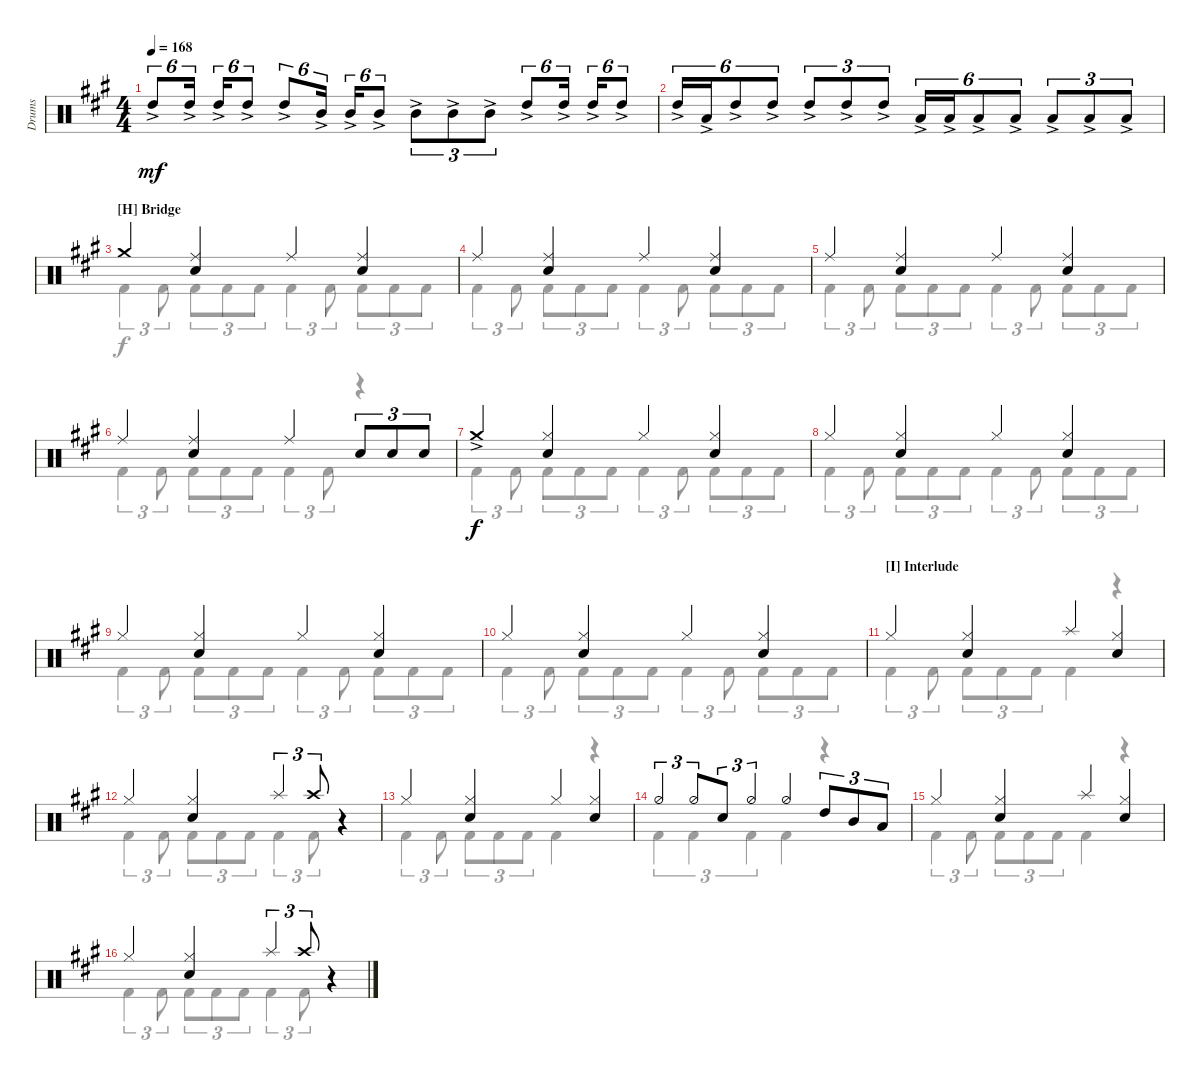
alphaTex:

\defaultSystemsLayout 4
\bracketExtendMode groupsimilarinstruments
\otherSystemsTrackNameOrientation horizontal
\track ("Drums" "Drums") {instrument percussion}
\staff {score}
\articulation defaults
\voice
\ts (4 4)
\tempo 168
\clef neutral
\ks a "High Tom (hit)"{ac acc forcenatural}.8{tu (6 4) dy mf beam Up} "High Tom (hit)"{ac acc forcenatural}.16{tu (6 4) beam Up} "High Tom (hit)"{ac acc forcenatural}.16{tu (6 4) beam Up} "High Tom (hit)"{ac acc forcenatural}.8{tu (6 4) beam Up} "High Tom (hit)"{ac acc forcenatural}.8{tu (6 4) beam Up} "Mid Tom (hit)"{ac acc forcenatural}.16{tu (6 4) beam Up} "Mid Tom (hit)"{ac acc forcenatural}.16{tu (6 4) beam Up} "Mid Tom (hit)"{ac acc forcenatural}.8{tu (6 4) beam Up} "Mid Tom (hit)"{ac acc forcenatural}.8{tu (3 2) beam Down} "Mid Tom (hit)"{ac acc forcenatural}.8{tu (3 2) beam Down} "Mid Tom (hit)"{ac acc forcenatural}.8{tu (3 2) beam Down} "High Tom (hit)"{ac acc forcenatural}.8{tu (6 4) beam Up} "High Tom (hit)"{ac acc forcenatural}.16{tu (6 4) beam Up} "High Tom (hit)"{ac acc forcenatural}.16{tu (6 4) beam Up} "High Tom (hit)"{ac acc forcenatural}.8{tu (6 4) beam Up}
|
"High Tom (hit)"{ac acc forcenatural}.16{tu (6 4) beam Up} "Low Tom (hit)"{ac acc forcenatural}.16{tu (6 4) beam Up} "High Tom (hit)"{ac acc forcenatural}.8{tu (6 4) beam Up} "High Tom (hit)"{ac acc forcenatural}.8{tu (6 4) beam Up} "High Tom (hit)"{ac acc forcenatural}.8{tu (3 2) beam Up} "High Tom (hit)"{ac acc forcenatural}.8{tu (3 2) beam Up} "High Tom (hit)"{ac acc forcenatural}.8{tu (3 2) beam Up} "Low Tom (hit)"{ac acc forcenatural}.16{tu (6 4) beam Up} "Low Tom (hit)"{ac acc forcenatural}.16{tu (6 4) beam Up} "Low Tom (hit)"{ac acc forcenatural}.8{tu (6 4) beam Up} "Low Tom (hit)"{ac acc forcenatural}.8{tu (6 4) beam Up} "Low Tom (hit)"{ac acc forcenatural}.8{tu (3 2) beam Up} "Low Tom (hit)"{ac acc forcenatural}.8{tu (3 2) beam Up} "Low Tom (hit)"{ac acc forcenatural}.8{tu (3 2) beam Up} |
\section ("H" "Bridge")
"Crash medium (hit)"{acc forcenatural}.4{beam Up} ("Ride (middle)"{acc forcenatural} "Snare (hit) 2"{acc forcenatural}).4{beam Up} "Ride (middle)"{acc forcenatural}.4{beam Up} ("Ride (middle)"{acc forcenatural} "Snare (hit) 2"{acc forcenatural}).4{beam Up} |
"Ride (middle)"{acc forcenatural}.4{beam Up} ("Ride (middle)"{acc forcenatural} "Snare (hit) 2"{acc forcenatural}).4{beam Up} "Ride (middle)"{acc forcenatural}.4{beam Up} ("Ride (middle)"{acc forcenatural} "Snare (hit) 2"{acc forcenatural}).4{beam Up} |
"Ride (middle)"{acc forcenatural}.4{beam Up} ("Ride (middle)"{acc forcenatural} "Snare (hit) 2"{acc forcenatural}).4{beam Up} "Ride (middle)"{acc forcenatural}.4{beam Up} ("Ride (middle)"{acc forcenatural} "Snare (hit) 2"{acc forcenatural}).4{beam Up} |
"Ride (middle)"{acc forcenatural}.4{beam Up} ("Ride (middle)"{acc forcenatural} "Snare (hit) 2"{acc forcenatural}).4{beam Up} "Ride (middle)"{acc forcenatural}.4{beam Up} "Snare (hit) 2"{acc forcenatural}.8{tu (3 2) beam Up} "Snare (hit) 2"{acc forcenatural}.8{tu (3 2) beam Up} "Snare (hit) 2"{acc forcenatural}.8{tu (3 2) beam Up} |
"Crash medium (hit)"{ac acc forcenatural}.4{dy f beam Up} ("Hi-Hat (closed)"{acc forcenatural} "Snare (hit) 2"{acc forcenatural}).4{beam Up} "Hi-Hat (closed)"{acc forcenatural}.4{beam Up} ("Hi-Hat (closed)"{acc forcenatural} "Snare (hit) 2"{acc forcenatural}).4{beam Up} |
"Hi-Hat (closed)"{acc forcenatural}.4{beam Up} ("Hi-Hat (closed)"{acc forcenatural} "Snare (hit) 2"{acc forcenatural}).4{beam Up} "Hi-Hat (closed)"{acc forcenatural}.4{beam Up} ("Hi-Hat (closed)"{acc forcenatural} "Snare (hit) 2"{acc forcenatural}).4{beam Up} |
"Hi-Hat (closed)"{acc forcenatural}.4{beam Up} ("Hi-Hat (closed)"{acc forcenatural} "Snare (hit) 2"{acc forcenatural}).4{beam Up} "Hi-Hat (closed)"{acc forcenatural}.4{beam Up} ("Hi-Hat (closed)"{acc forcenatural} "Snare (hit) 2"{acc forcenatural}).4{beam Up} |
"Hi-Hat (closed)"{acc forcenatural}.4{beam Up} ("Hi-Hat (closed)"{acc forcenatural} "Snare (hit) 2"{acc forcenatural}).4{beam Up} "Hi-Hat (closed)"{acc forcenatural}.4{beam Up} ("Hi-Hat (closed)"{acc forcenatural} "Snare (hit) 2"{acc forcenatural}).4{beam Up} |
\section ("I" "Interlude")
"Hi-Hat (closed)"{acc forcenatural}.4{beam Up} ("Hi-Hat (closed)"{acc forcenatural} "Snare (hit) 2"{acc forcenatural}).4{beam Up} "Splash (hit)"{acc forcenatural}.4{beam Up} ("Hi-Hat (closed)"{acc forcenatural} "Snare (hit) 2"{acc forcenatural}).4{beam Up} |
"Hi-Hat (closed)"{acc forcenatural}.4{beam Up} ("Hi-Hat (closed)"{acc forcenatural} "Snare (hit) 2"{acc forcenatural}).4{beam Up} "Splash (hit)"{acc forcenatural}.4{tu (3 2) beam Up} "Crash high (hit)"{acc forcenatural}.8{tu (3 2) beam Up} r.4{beam Up} |
"Hi-Hat (closed)"{acc forcenatural}.4{beam Up} ("Hi-Hat (closed)"{acc forcenatural} "Snare (hit) 2"{acc forcenatural}).4{beam Up} "Hi-Hat (closed)"{acc forcenatural}.4{beam Up} ("Hi-Hat (closed)"{acc forcenatural} "Snare (hit) 2"{acc forcenatural}).4{beam Up} |
"Hi-Hat (half)"{acc forcenatural}.4{tu (3 2) beam Up} "Hi-Hat (half)"{acc forcenatural}.8{tu (3 2) beam Up beam merge} "Snare (hit) 2"{acc forcenatural}.8{tu (3 2) beam Up} "Hi-Hat (half)"{acc forcenatural}.4{tu (3 2) beam Up} "Hi-Hat (half)"{acc forcenatural}.4{beam Up} "High Tom (hit)"{acc forcenatural}.8{tu (3 2) beam Up} "Mid Tom (hit)"{acc forcenatural}.8{tu (3 2) beam Up} "Low Tom (hit)"{acc forcenatural}.8{tu (3 2) beam Up} |
"Hi-Hat (closed)"{acc forcenatural}.4{beam Up} ("Hi-Hat (closed)"{acc forcenatural} "Snare (hit) 2"{acc forcenatural}).4{beam Up} "Splash (hit)"{acc forcenatural}.4{beam Up} ("Hi-Hat (closed)"{acc forcenatural} "Snare (hit) 2"{acc forcenatural}).4{beam Up} |
"Hi-Hat (closed)"{acc forcenatural}.4{beam Up} ("Hi-Hat (closed)"{acc forcenatural} "Snare (hit) 2"{acc forcenatural}).4{beam Up} "Splash (hit)"{acc forcenatural}.4{tu (3 2) beam Up} "Crash high (hit)"{acc forcenatural}.8{tu (3 2) beam Up} r.4{beam Up}
\voice
\clef neutral
\ottava regular
\simile none
\ks a
|
|
"Kick (hit) 2"{acc forcenatural}.4{tu (3 2) dy f beam Down} "Kick (hit) 2"{acc forcenatural}.8{tu (3 2) beam Down} "Kick (hit) 2"{acc forcenatural}.8{tu (3 2) beam Down} "Kick (hit) 2"{acc forcenatural}.8{tu (3 2) beam Down} "Kick (hit) 2"{acc forcenatural}.8{tu (3 2) beam Down} "Kick (hit) 2"{acc forcenatural}.4{tu (3 2) beam Down} "Kick (hit) 2"{acc forcenatural}.8{tu (3 2) beam Down} "Kick (hit) 2"{acc forcenatural}.8{tu (3 2) beam Down} "Kick (hit) 2"{acc forcenatural}.8{tu (3 2) beam Down} "Kick (hit) 2"{acc forcenatural}.8{tu (3 2) beam Down} |
"Kick (hit) 2"{acc forcenatural}.4{tu (3 2) beam Down} "Kick (hit) 2"{acc forcenatural}.8{tu (3 2) beam Down} "Kick (hit) 2"{acc forcenatural}.8{tu (3 2) beam Down} "Kick (hit) 2"{acc forcenatural}.8{tu (3 2) beam Down} "Kick (hit) 2"{acc forcenatural}.8{tu (3 2) beam Down} "Kick (hit) 2"{acc forcenatural}.4{tu (3 2) beam Down} "Kick (hit) 2"{acc forcenatural}.8{tu (3 2) beam Down} "Kick (hit) 2"{acc forcenatural}.8{tu (3 2) beam Down} "Kick (hit) 2"{acc forcenatural}.8{tu (3 2) beam Down} "Kick (hit) 2"{acc forcenatural}.8{tu (3 2) beam Down} |
"Kick (hit) 2"{acc forcenatural}.4{tu (3 2) beam Down} "Kick (hit) 2"{acc forcenatural}.8{tu (3 2) beam Down} "Kick (hit) 2"{acc forcenatural}.8{tu (3 2) beam Down} "Kick (hit) 2"{acc forcenatural}.8{tu (3 2) beam Down} "Kick (hit) 2"{acc forcenatural}.8{tu (3 2) beam Down} "Kick (hit) 2"{acc forcenatural}.4{tu (3 2) beam Down} "Kick (hit) 2"{acc forcenatural}.8{tu (3 2) beam Down} "Kick (hit) 2"{acc forcenatural}.8{tu (3 2) beam Down} "Kick (hit) 2"{acc forcenatural}.8{tu (3 2) beam Down} "Kick (hit) 2"{acc forcenatural}.8{tu (3 2) beam Down} |
"Kick (hit) 2"{acc forcenatural}.4{tu (3 2) beam Down} "Kick (hit) 2"{acc forcenatural}.8{tu (3 2) beam Down} "Kick (hit) 2"{acc forcenatural}.8{tu (3 2) beam Down} "Kick (hit) 2"{acc forcenatural}.8{tu (3 2) beam Down} "Kick (hit) 2"{acc forcenatural}.8{tu (3 2) beam Down} "Kick (hit) 2"{acc forcenatural}.4{tu (3 2) beam Down} "Kick (hit) 2"{acc forcenatural}.8{tu (3 2) beam Down} r.4{beam Down} |
"Kick (hit) 2"{acc forcenatural}.4{tu (3 2) beam Down} "Kick (hit) 2"{acc forcenatural}.8{tu (3 2) beam Down} "Kick (hit) 2"{acc forcenatural}.8{tu (3 2) beam Down} "Kick (hit) 2"{acc forcenatural}.8{tu (3 2) beam Down} "Kick (hit) 2"{acc forcenatural}.8{tu (3 2) beam Down} "Kick (hit) 2"{acc forcenatural}.4{tu (3 2) beam Down} "Kick (hit) 2"{acc forcenatural}.8{tu (3 2) beam Down} "Kick (hit) 2"{acc forcenatural}.8{tu (3 2) beam Down} "Kick (hit) 2"{acc forcenatural}.8{tu (3 2) beam Down} "Kick (hit) 2"{acc forcenatural}.8{tu (3 2) beam Down} |
"Kick (hit) 2"{acc forcenatural}.4{tu (3 2) beam Down} "Kick (hit) 2"{acc forcenatural}.8{tu (3 2) beam Down} "Kick (hit) 2"{acc forcenatural}.8{tu (3 2) beam Down} "Kick (hit) 2"{acc forcenatural}.8{tu (3 2) beam Down} "Kick (hit) 2"{acc forcenatural}.8{tu (3 2) beam Down} "Kick (hit) 2"{acc forcenatural}.4{tu (3 2) beam Down} "Kick (hit) 2"{acc forcenatural}.8{tu (3 2) beam Down} "Kick (hit) 2"{acc forcenatural}.8{tu (3 2) beam Down} "Kick (hit) 2"{acc forcenatural}.8{tu (3 2) beam Down} "Kick (hit) 2"{acc forcenatural}.8{tu (3 2) beam Down} |
"Kick (hit) 2"{acc forcenatural}.4{tu (3 2) beam Down} "Kick (hit) 2"{acc forcenatural}.8{tu (3 2) beam Down} "Kick (hit) 2"{acc forcenatural}.8{tu (3 2) beam Down} "Kick (hit) 2"{acc forcenatural}.8{tu (3 2) beam Down} "Kick (hit) 2"{acc forcenatural}.8{tu (3 2) beam Down} "Kick (hit) 2"{acc forcenatural}.4{tu (3 2) beam Down} "Kick (hit) 2"{acc forcenatural}.8{tu (3 2) beam Down} "Kick (hit) 2"{acc forcenatural}.8{tu (3 2) beam Down} "Kick (hit) 2"{acc forcenatural}.8{tu (3 2) beam Down} "Kick (hit) 2"{acc forcenatural}.8{tu (3 2) beam Down} |
"Kick (hit) 2"{acc forcenatural}.4{tu (3 2) beam Down} "Kick (hit) 2"{acc forcenatural}.8{tu (3 2) beam Down} "Kick (hit) 2"{acc forcenatural}.8{tu (3 2) beam Down} "Kick (hit) 2"{acc forcenatural}.8{tu (3 2) beam Down} "Kick (hit) 2"{acc forcenatural}.8{tu (3 2) beam Down} "Kick (hit) 2"{acc forcenatural}.4{tu (3 2) beam Down} "Kick (hit) 2"{acc forcenatural}.8{tu (3 2) beam Down} "Kick (hit) 2"{acc forcenatural}.8{tu (3 2) beam Down} "Kick (hit) 2"{acc forcenatural}.8{tu (3 2) beam Down} "Kick (hit) 2"{acc forcenatural}.8{tu (3 2) beam Down} |
"Kick (hit) 2"{acc forcenatural}.4{tu (3 2) beam Down} "Kick (hit) 2"{acc forcenatural}.8{tu (3 2) beam Down} "Kick (hit) 2"{acc forcenatural}.8{tu (3 2) beam Down} "Kick (hit) 2"{acc forcenatural}.8{tu (3 2) beam Down} "Kick (hit) 2"{acc forcenatural}.8{tu (3 2) beam Down} "Kick (hit) 2"{acc forcenatural}.4{beam Down} r.4{beam Down} |
"Kick (hit) 2"{acc forcenatural}.4{tu (3 2) beam Down} "Kick (hit) 2"{acc forcenatural}.8{tu (3 2) beam Down} "Kick (hit) 2"{acc forcenatural}.8{tu (3 2) beam Down} "Kick (hit) 2"{acc forcenatural}.8{tu (3 2) beam Down} "Kick (hit) 2"{acc forcenatural}.8{tu (3 2) beam Down} "Kick (hit) 2"{acc forcenatural}.4{tu (3 2) beam Down} "Kick (hit) 2"{acc forcenatural}.8{tu (3 2) beam Down} r.4{beam Down} |
"Kick (hit) 2"{acc forcenatural}.4{tu (3 2) beam Down} "Kick (hit) 2"{acc forcenatural}.8{tu (3 2) beam Down} "Kick (hit) 2"{acc forcenatural}.8{tu (3 2) beam Down} "Kick (hit) 2"{acc forcenatural}.8{tu (3 2) beam Down} "Kick (hit) 2"{acc forcenatural}.8{tu (3 2) beam Down} "Kick (hit) 2"{acc forcenatural}.4{beam Down} r.4{beam Down} |
"Kick (hit) 2"{acc forcenatural}.4{tu (3 2) beam Down} "Kick (hit) 2"{acc forcenatural}.4{tu (3 2) beam Down} "Kick (hit) 2"{acc forcenatural}.4{tu (3 2) beam Down} "Kick (hit) 2"{acc forcenatural}.4{beam Down} r.4{beam Down} |
"Kick (hit) 2"{acc forcenatural}.4{tu (3 2) beam Down} "Kick (hit) 2"{acc forcenatural}.8{tu (3 2) beam Down} "Kick (hit) 2"{acc forcenatural}.8{tu (3 2) beam Down} "Kick (hit) 2"{acc forcenatural}.8{tu (3 2) beam Down} "Kick (hit) 2"{acc forcenatural}.8{tu (3 2) beam Down} "Kick (hit) 2"{acc forcenatural}.4{beam Down} r.4{beam Down} |
"Kick (hit) 2"{acc forcenatural}.4{tu (3 2) beam Down} "Kick (hit) 2"{acc forcenatural}.8{tu (3 2) beam Down} "Kick (hit) 2"{acc forcenatural}.8{tu (3 2) beam Down} "Kick (hit) 2"{acc forcenatural}.8{tu (3 2) beam Down} "Kick (hit) 2"{acc forcenatural}.8{tu (3 2) beam Down} "Kick (hit) 2"{acc forcenatural}.4{tu (3 2) beam Down} "Kick (hit) 2"{acc forcenatural}.8{tu (3 2) beam Down} r.4{beam Down}
